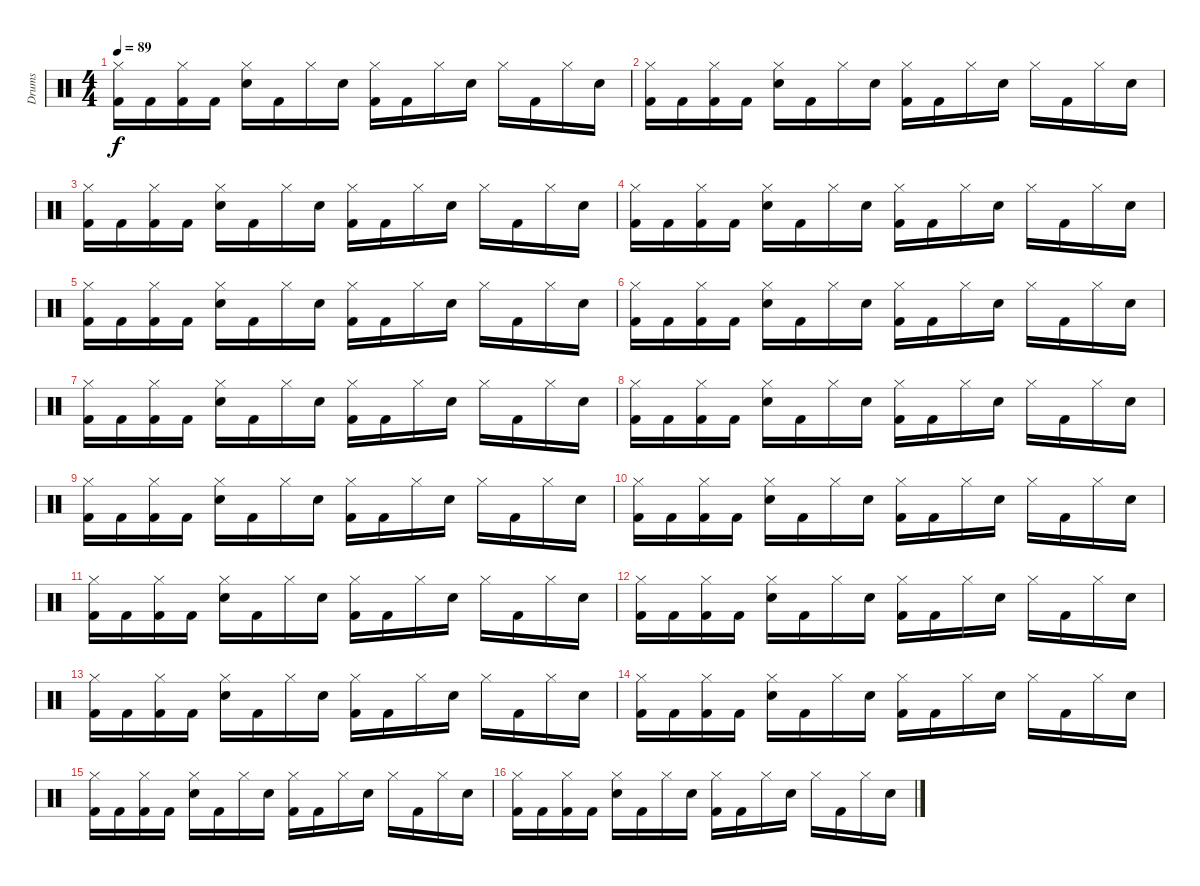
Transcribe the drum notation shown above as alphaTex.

\track ("Drums" "Drums") {instrument percussion}
\staff {score}
\articulation defaults
\ts (4 4)
\tempo 89
\clef neutral
\ks c
("Kick (hit) 2" "Hi-Hat (closed)").16{dy f} "Kick (hit) 2".16 ("Kick (hit) 2" "Hi-Hat (closed)").16 "Kick (hit) 2".16 ("Snare (hit) 2" "Hi-Hat (closed)").16 "Kick (hit) 2".16 "Hi-Hat (closed)".16 "Snare (hit) 2".16 ("Kick (hit) 2" "Hi-Hat (closed)").16 "Kick (hit) 2".16 "Hi-Hat (closed)".16 "Snare (hit) 2".16 "Hi-Hat (closed)".16 "Kick (hit) 2".16 "Hi-Hat (closed)".16 "Snare (hit) 2".16 |
("Kick (hit) 2" "Hi-Hat (closed)").16 "Kick (hit) 2".16 ("Kick (hit) 2" "Hi-Hat (closed)").16 "Kick (hit) 2".16 ("Snare (hit) 2" "Hi-Hat (closed)").16 "Kick (hit) 2".16 "Hi-Hat (closed)".16 "Snare (hit) 2".16 ("Kick (hit) 2" "Hi-Hat (closed)").16 "Kick (hit) 2".16 "Hi-Hat (closed)".16 "Snare (hit) 2".16 "Hi-Hat (closed)".16 "Kick (hit) 2".16 "Hi-Hat (closed)".16 "Snare (hit) 2".16 |
("Kick (hit) 2" "Hi-Hat (closed)").16 "Kick (hit) 2".16 ("Kick (hit) 2" "Hi-Hat (closed)").16 "Kick (hit) 2".16 ("Snare (hit) 2" "Hi-Hat (closed)").16 "Kick (hit) 2".16 "Hi-Hat (closed)".16 "Snare (hit) 2".16 ("Kick (hit) 2" "Hi-Hat (closed)").16 "Kick (hit) 2".16 "Hi-Hat (closed)".16 "Snare (hit) 2".16 "Hi-Hat (closed)".16 "Kick (hit) 2".16 "Hi-Hat (closed)".16 "Snare (hit) 2".16 |
("Kick (hit) 2" "Hi-Hat (closed)").16 "Kick (hit) 2".16 ("Kick (hit) 2" "Hi-Hat (closed)").16 "Kick (hit) 2".16 ("Snare (hit) 2" "Hi-Hat (closed)").16 "Kick (hit) 2".16 "Hi-Hat (closed)".16 "Snare (hit) 2".16 ("Kick (hit) 2" "Hi-Hat (closed)").16 "Kick (hit) 2".16 "Hi-Hat (closed)".16 "Snare (hit) 2".16 "Hi-Hat (closed)".16 "Kick (hit) 2".16 "Hi-Hat (closed)".16 "Snare (hit) 2".16 |
("Kick (hit) 2" "Hi-Hat (closed)").16 "Kick (hit) 2".16 ("Kick (hit) 2" "Hi-Hat (closed)").16 "Kick (hit) 2".16 ("Snare (hit) 2" "Hi-Hat (closed)").16 "Kick (hit) 2".16 "Hi-Hat (closed)".16 "Snare (hit) 2".16 ("Kick (hit) 2" "Hi-Hat (closed)").16 "Kick (hit) 2".16 "Hi-Hat (closed)".16 "Snare (hit) 2".16 "Hi-Hat (closed)".16 "Kick (hit) 2".16 "Hi-Hat (closed)".16 "Snare (hit) 2".16 |
("Kick (hit) 2" "Hi-Hat (closed)").16 "Kick (hit) 2".16 ("Kick (hit) 2" "Hi-Hat (closed)").16 "Kick (hit) 2".16 ("Snare (hit) 2" "Hi-Hat (closed)").16 "Kick (hit) 2".16 "Hi-Hat (closed)".16 "Snare (hit) 2".16 ("Kick (hit) 2" "Hi-Hat (closed)").16 "Kick (hit) 2".16 "Hi-Hat (closed)".16 "Snare (hit) 2".16 "Hi-Hat (closed)".16 "Kick (hit) 2".16 "Hi-Hat (closed)".16 "Snare (hit) 2".16 |
("Kick (hit) 2" "Hi-Hat (closed)").16 "Kick (hit) 2".16 ("Kick (hit) 2" "Hi-Hat (closed)").16 "Kick (hit) 2".16 ("Snare (hit) 2" "Hi-Hat (closed)").16 "Kick (hit) 2".16 "Hi-Hat (closed)".16 "Snare (hit) 2".16 ("Kick (hit) 2" "Hi-Hat (closed)").16 "Kick (hit) 2".16 "Hi-Hat (closed)".16 "Snare (hit) 2".16 "Hi-Hat (closed)".16 "Kick (hit) 2".16 "Hi-Hat (closed)".16 "Snare (hit) 2".16 |
("Kick (hit) 2" "Hi-Hat (closed)").16 "Kick (hit) 2".16 ("Kick (hit) 2" "Hi-Hat (closed)").16 "Kick (hit) 2".16 ("Snare (hit) 2" "Hi-Hat (closed)").16 "Kick (hit) 2".16 "Hi-Hat (closed)".16 "Snare (hit) 2".16 ("Kick (hit) 2" "Hi-Hat (closed)").16 "Kick (hit) 2".16 "Hi-Hat (closed)".16 "Snare (hit) 2".16 "Hi-Hat (closed)".16 "Kick (hit) 2".16 "Hi-Hat (closed)".16 "Snare (hit) 2".16 |
("Kick (hit) 2" "Hi-Hat (closed)").16 "Kick (hit) 2".16 ("Kick (hit) 2" "Hi-Hat (closed)").16 "Kick (hit) 2".16 ("Snare (hit) 2" "Hi-Hat (closed)").16 "Kick (hit) 2".16 "Hi-Hat (closed)".16 "Snare (hit) 2".16 ("Kick (hit) 2" "Hi-Hat (closed)").16 "Kick (hit) 2".16 "Hi-Hat (closed)".16 "Snare (hit) 2".16 "Hi-Hat (closed)".16 "Kick (hit) 2".16 "Hi-Hat (closed)".16 "Snare (hit) 2".16 |
("Kick (hit) 2" "Hi-Hat (closed)").16 "Kick (hit) 2".16 ("Kick (hit) 2" "Hi-Hat (closed)").16 "Kick (hit) 2".16 ("Snare (hit) 2" "Hi-Hat (closed)").16 "Kick (hit) 2".16 "Hi-Hat (closed)".16 "Snare (hit) 2".16 ("Kick (hit) 2" "Hi-Hat (closed)").16 "Kick (hit) 2".16 "Hi-Hat (closed)".16 "Snare (hit) 2".16 "Hi-Hat (closed)".16 "Kick (hit) 2".16 "Hi-Hat (closed)".16 "Snare (hit) 2".16 |
("Kick (hit) 2" "Hi-Hat (closed)").16 "Kick (hit) 2".16 ("Kick (hit) 2" "Hi-Hat (closed)").16 "Kick (hit) 2".16 ("Snare (hit) 2" "Hi-Hat (closed)").16 "Kick (hit) 2".16 "Hi-Hat (closed)".16 "Snare (hit) 2".16 ("Kick (hit) 2" "Hi-Hat (closed)").16 "Kick (hit) 2".16 "Hi-Hat (closed)".16 "Snare (hit) 2".16 "Hi-Hat (closed)".16 "Kick (hit) 2".16 "Hi-Hat (closed)".16 "Snare (hit) 2".16 |
("Kick (hit) 2" "Hi-Hat (closed)").16 "Kick (hit) 2".16 ("Kick (hit) 2" "Hi-Hat (closed)").16 "Kick (hit) 2".16 ("Snare (hit) 2" "Hi-Hat (closed)").16 "Kick (hit) 2".16 "Hi-Hat (closed)".16 "Snare (hit) 2".16 ("Kick (hit) 2" "Hi-Hat (closed)").16 "Kick (hit) 2".16 "Hi-Hat (closed)".16 "Snare (hit) 2".16 "Hi-Hat (closed)".16 "Kick (hit) 2".16 "Hi-Hat (closed)".16 "Snare (hit) 2".16 |
("Kick (hit) 2" "Hi-Hat (closed)").16 "Kick (hit) 2".16 ("Kick (hit) 2" "Hi-Hat (closed)").16 "Kick (hit) 2".16 ("Snare (hit) 2" "Hi-Hat (closed)").16 "Kick (hit) 2".16 "Hi-Hat (closed)".16 "Snare (hit) 2".16 ("Kick (hit) 2" "Hi-Hat (closed)").16 "Kick (hit) 2".16 "Hi-Hat (closed)".16 "Snare (hit) 2".16 "Hi-Hat (closed)".16 "Kick (hit) 2".16 "Hi-Hat (closed)".16 "Snare (hit) 2".16 |
("Kick (hit) 2" "Hi-Hat (closed)").16 "Kick (hit) 2".16 ("Kick (hit) 2" "Hi-Hat (closed)").16 "Kick (hit) 2".16 ("Snare (hit) 2" "Hi-Hat (closed)").16 "Kick (hit) 2".16 "Hi-Hat (closed)".16 "Snare (hit) 2".16 ("Kick (hit) 2" "Hi-Hat (closed)").16 "Kick (hit) 2".16 "Hi-Hat (closed)".16 "Snare (hit) 2".16 "Hi-Hat (closed)".16 "Kick (hit) 2".16 "Hi-Hat (closed)".16 "Snare (hit) 2".16 |
("Kick (hit) 2" "Hi-Hat (closed)").16 "Kick (hit) 2".16 ("Kick (hit) 2" "Hi-Hat (closed)").16 "Kick (hit) 2".16 ("Snare (hit) 2" "Hi-Hat (closed)").16 "Kick (hit) 2".16 "Hi-Hat (closed)".16 "Snare (hit) 2".16 ("Kick (hit) 2" "Hi-Hat (closed)").16 "Kick (hit) 2".16 "Hi-Hat (closed)".16 "Snare (hit) 2".16 "Hi-Hat (closed)".16 "Kick (hit) 2".16 "Hi-Hat (closed)".16 "Snare (hit) 2".16 |
("Kick (hit) 2" "Hi-Hat (closed)").16 "Kick (hit) 2".16 ("Kick (hit) 2" "Hi-Hat (closed)").16 "Kick (hit) 2".16 ("Snare (hit) 2" "Hi-Hat (closed)").16 "Kick (hit) 2".16 "Hi-Hat (closed)".16 "Snare (hit) 2".16 ("Kick (hit) 2" "Hi-Hat (closed)").16 "Kick (hit) 2".16 "Hi-Hat (closed)".16 "Snare (hit) 2".16 "Hi-Hat (closed)".16 "Kick (hit) 2".16 "Hi-Hat (closed)".16 "Snare (hit) 2".16
